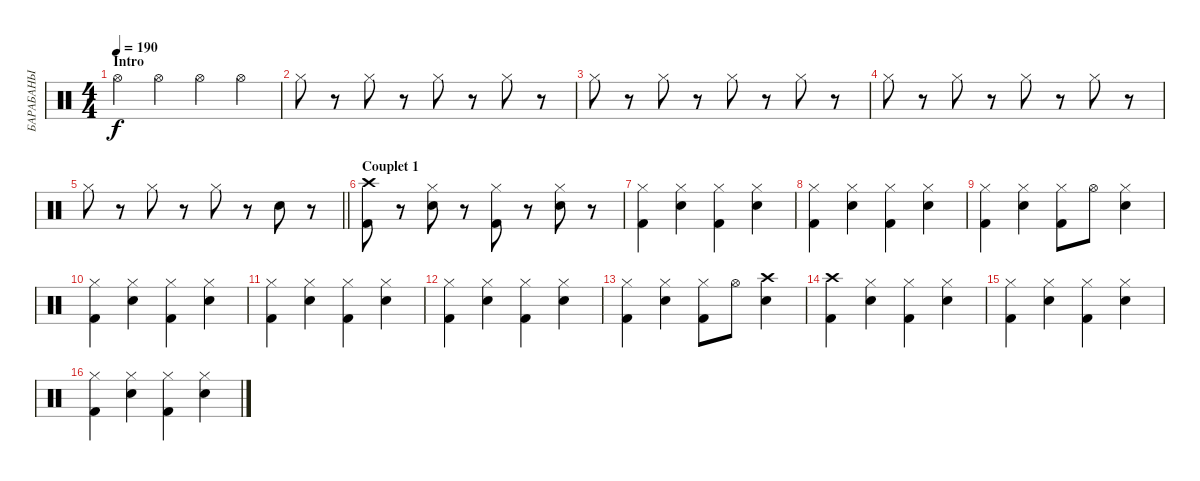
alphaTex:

\track ("БАРАБАНЫ" "БАРАБАНЫ") {instrument percussion}
\staff {score}
\articulation defaults
\ts (4 4)
\section ("" "Intro")
\tempo 190
\clef neutral
\ks c "Hi-Hat (open)".4{dy f} "Hi-Hat (open)".4 "Hi-Hat (open)".4 "Hi-Hat (open)".4
|
"Hi-Hat (closed)".8 r.8 "Hi-Hat (closed)".8 r.8 "Hi-Hat (closed)".8 r.8 "Hi-Hat (closed)".8 r.8 |
"Hi-Hat (closed)".8 r.8 "Hi-Hat (closed)".8 r.8 "Hi-Hat (closed)".8 r.8 "Hi-Hat (closed)".8 r.8 |
"Hi-Hat (closed)".8 r.8 "Hi-Hat (closed)".8 r.8 "Hi-Hat (closed)".8 r.8 "Hi-Hat (closed)".8 r.8 |
\barLineRight lightlight "Hi-Hat (closed)".8
r.8 "Hi-Hat (closed)".8 r.8 "Hi-Hat (closed)".8 r.8 "Snare (hit) 2".8 r.8 |
\section ("" "Couplet 1")
("Crash high (hit)" "Kick (hit) 2").8 r.8 ("Hi-Hat (closed)" "Snare (hit) 2").8 r.8 ("Hi-Hat (closed)" "Kick (hit) 2").8 r.8 ("Hi-Hat (closed)" "Snare (hit) 2").8 r.8 |
("Hi-Hat (closed)" "Kick (hit) 2").4 ("Hi-Hat (closed)" "Snare (hit) 2").4 ("Hi-Hat (closed)" "Kick (hit) 2").4 ("Hi-Hat (closed)" "Snare (hit) 2").4 |
("Hi-Hat (closed)" "Kick (hit) 2").4 ("Hi-Hat (closed)" "Snare (hit) 2").4 ("Hi-Hat (closed)" "Kick (hit) 2").4 ("Hi-Hat (closed)" "Snare (hit) 2").4 |
("Hi-Hat (closed)" "Kick (hit) 2").4 ("Hi-Hat (closed)" "Snare (hit) 2").4 ("Hi-Hat (closed)" "Kick (hit) 2").8 "Hi-Hat (open)".8 ("Hi-Hat (closed)" "Snare (hit) 2").4 |
("Hi-Hat (closed)" "Kick (hit) 2").4 ("Hi-Hat (closed)" "Snare (hit) 2").4 ("Hi-Hat (closed)" "Kick (hit) 2").4 ("Hi-Hat (closed)" "Snare (hit) 2").4 |
("Hi-Hat (closed)" "Kick (hit) 2").4 ("Hi-Hat (closed)" "Snare (hit) 2").4 ("Hi-Hat (closed)" "Kick (hit) 2").4 ("Hi-Hat (closed)" "Snare (hit) 2").4 |
("Hi-Hat (closed)" "Kick (hit) 2").4 ("Hi-Hat (closed)" "Snare (hit) 2").4 ("Hi-Hat (closed)" "Kick (hit) 2").4 ("Hi-Hat (closed)" "Snare (hit) 2").4 |
("Hi-Hat (closed)" "Kick (hit) 2").4 ("Hi-Hat (closed)" "Snare (hit) 2").4 ("Hi-Hat (closed)" "Kick (hit) 2").8 "Hi-Hat (open)".8 ("Crash high (hit)" "Snare (hit) 2").4 |
("Crash high (hit)" "Kick (hit) 2").4 ("Hi-Hat (closed)" "Snare (hit) 2").4 ("Hi-Hat (closed)" "Kick (hit) 2").4 ("Hi-Hat (closed)" "Snare (hit) 2").4 |
("Hi-Hat (closed)" "Kick (hit) 2").4 ("Hi-Hat (closed)" "Snare (hit) 2").4 ("Hi-Hat (closed)" "Kick (hit) 2").4 ("Hi-Hat (closed)" "Snare (hit) 2").4 |
("Hi-Hat (closed)" "Kick (hit) 2").4 ("Hi-Hat (closed)" "Snare (hit) 2").4 ("Hi-Hat (closed)" "Kick (hit) 2").4 ("Hi-Hat (closed)" "Snare (hit) 2").4
